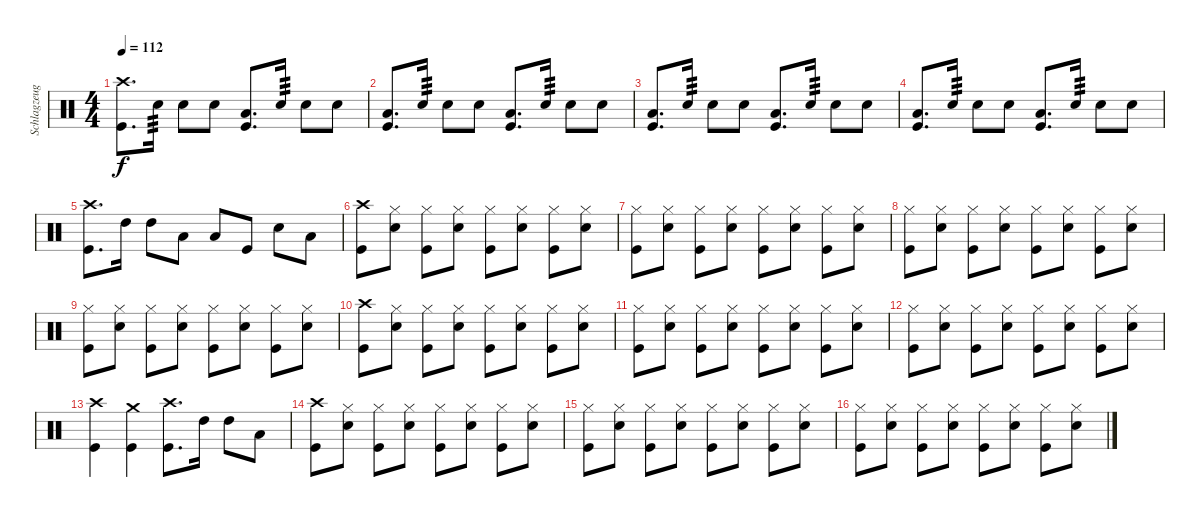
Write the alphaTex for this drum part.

\track ("Schlagzeug" "Schlagzeug") {instrument percussion}
\staff {score}
\articulation defaults
\ts (4 4)
\tempo 112
\clef neutral
\ks c
("Crash high (hit)" "Kick (hit)").8{d dy f} "Snare (hit) 2".16{tp 3} "Snare (hit) 2".8 "Snare (hit) 2".8 ("Low Floor Tom (hit)" "Kick (hit)").8{d} "Snare (hit) 2".16{tp 3} "Snare (hit) 2".8 "Snare (hit) 2".8 |
("Low Floor Tom (hit)" "Kick (hit)").8{d} "Snare (hit) 2".16{tp 3} "Snare (hit) 2".8 "Snare (hit) 2".8 ("Low Floor Tom (hit)" "Kick (hit)").8{d} "Snare (hit) 2".16{tp 3} "Snare (hit) 2".8 "Snare (hit) 2".8 |
("Low Floor Tom (hit)" "Kick (hit)").8{d} "Snare (hit) 2".16{tp 3} "Snare (hit) 2".8 "Snare (hit) 2".8 ("Low Floor Tom (hit)" "Kick (hit)").8{d} "Snare (hit) 2".16{tp 3} "Snare (hit) 2".8 "Snare (hit) 2".8 |
("Low Floor Tom (hit)" "Kick (hit)").8{d} "Snare (hit) 2".16{tp 3} "Snare (hit) 2".8 "Snare (hit) 2".8 ("Low Floor Tom (hit)" "Kick (hit)").8{d} "Snare (hit) 2".16{tp 3} "Snare (hit) 2".8 "Snare (hit) 2".8 |
("Crash high (hit)" "Kick (hit)").8{d} "High Tom (hit)".16 "High Tom (hit)".8 "Low Tom (hit)".8 "Low Floor Tom (hit)".8 "Kick (hit)".8 "Snare (hit) 2".8 "Low Tom (hit)".8 |
("Crash high (hit)" "Kick (hit)").8 ("Hi-Hat (closed)" "Snare (hit) 2").8 ("Hi-Hat (closed)" "Kick (hit)").8 ("Hi-Hat (closed)" "Snare (hit) 2").8 ("Hi-Hat (closed)" "Kick (hit)").8 ("Hi-Hat (closed)" "Snare (hit) 2").8 ("Hi-Hat (closed)" "Kick (hit)").8 ("Hi-Hat (closed)" "Snare (hit) 2").8 |
("Hi-Hat (closed)" "Kick (hit)").8 ("Hi-Hat (closed)" "Snare (hit) 2").8 ("Hi-Hat (closed)" "Kick (hit)").8 ("Hi-Hat (closed)" "Snare (hit) 2").8 ("Hi-Hat (closed)" "Kick (hit)").8 ("Hi-Hat (closed)" "Snare (hit) 2").8 ("Hi-Hat (closed)" "Kick (hit)").8 ("Hi-Hat (closed)" "Snare (hit) 2").8 |
("Hi-Hat (closed)" "Kick (hit)").8 ("Hi-Hat (closed)" "Snare (hit) 2").8 ("Hi-Hat (closed)" "Kick (hit)").8 ("Hi-Hat (closed)" "Snare (hit) 2").8 ("Hi-Hat (closed)" "Kick (hit)").8 ("Hi-Hat (closed)" "Snare (hit) 2").8 ("Hi-Hat (closed)" "Kick (hit)").8 ("Hi-Hat (closed)" "Snare (hit) 2").8 |
("Hi-Hat (closed)" "Kick (hit)").8 ("Hi-Hat (closed)" "Snare (hit) 2").8 ("Hi-Hat (closed)" "Kick (hit)").8 ("Hi-Hat (closed)" "Snare (hit) 2").8 ("Hi-Hat (closed)" "Kick (hit)").8 ("Hi-Hat (closed)" "Snare (hit) 2").8 ("Hi-Hat (closed)" "Kick (hit)").8 ("Hi-Hat (closed)" "Snare (hit) 2").8 |
("Crash high (hit)" "Kick (hit)").8 ("Hi-Hat (closed)" "Snare (hit) 2").8 ("Hi-Hat (closed)" "Kick (hit)").8 ("Hi-Hat (closed)" "Snare (hit) 2").8 ("Hi-Hat (closed)" "Kick (hit)").8 ("Hi-Hat (closed)" "Snare (hit) 2").8 ("Hi-Hat (closed)" "Kick (hit)").8 ("Hi-Hat (closed)" "Snare (hit) 2").8 |
("Hi-Hat (closed)" "Kick (hit)").8 ("Hi-Hat (closed)" "Snare (hit) 2").8 ("Hi-Hat (closed)" "Kick (hit)").8 ("Hi-Hat (closed)" "Snare (hit) 2").8 ("Hi-Hat (closed)" "Kick (hit)").8 ("Hi-Hat (closed)" "Snare (hit) 2").8 ("Hi-Hat (closed)" "Kick (hit)").8 ("Hi-Hat (closed)" "Snare (hit) 2").8 |
("Hi-Hat (closed)" "Kick (hit)").8 ("Hi-Hat (closed)" "Snare (hit) 2").8 ("Hi-Hat (closed)" "Kick (hit)").8 ("Hi-Hat (closed)" "Snare (hit) 2").8 ("Hi-Hat (closed)" "Kick (hit)").8 ("Hi-Hat (closed)" "Snare (hit) 2").8 ("Hi-Hat (closed)" "Kick (hit)").8 ("Hi-Hat (closed)" "Snare (hit) 2").8 |
("Crash high (hit)" "Kick (hit)").4 ("Crash medium (hit)" "Kick (hit)").4 ("Crash high (hit)" "Kick (hit)").8{d} "High Tom (hit)".16 "High Tom (hit)".8 "Low Tom (hit)".8 |
("Crash high (hit)" "Kick (hit)").8 ("Hi-Hat (closed)" "Snare (hit) 2").8 ("Hi-Hat (closed)" "Kick (hit)").8 ("Hi-Hat (closed)" "Snare (hit) 2").8 ("Hi-Hat (closed)" "Kick (hit)").8 ("Hi-Hat (closed)" "Snare (hit) 2").8 ("Hi-Hat (closed)" "Kick (hit)").8 ("Hi-Hat (closed)" "Snare (hit) 2").8 |
("Hi-Hat (closed)" "Kick (hit)").8 ("Hi-Hat (closed)" "Snare (hit) 2").8 ("Hi-Hat (closed)" "Kick (hit)").8 ("Hi-Hat (closed)" "Snare (hit) 2").8 ("Hi-Hat (closed)" "Kick (hit)").8 ("Hi-Hat (closed)" "Snare (hit) 2").8 ("Hi-Hat (closed)" "Kick (hit)").8 ("Hi-Hat (closed)" "Snare (hit) 2").8 |
("Hi-Hat (closed)" "Kick (hit)").8 ("Hi-Hat (closed)" "Snare (hit) 2").8 ("Hi-Hat (closed)" "Kick (hit)").8 ("Hi-Hat (closed)" "Snare (hit) 2").8 ("Hi-Hat (closed)" "Kick (hit)").8 ("Hi-Hat (closed)" "Snare (hit) 2").8 ("Hi-Hat (closed)" "Kick (hit)").8 ("Hi-Hat (closed)" "Snare (hit) 2").8
